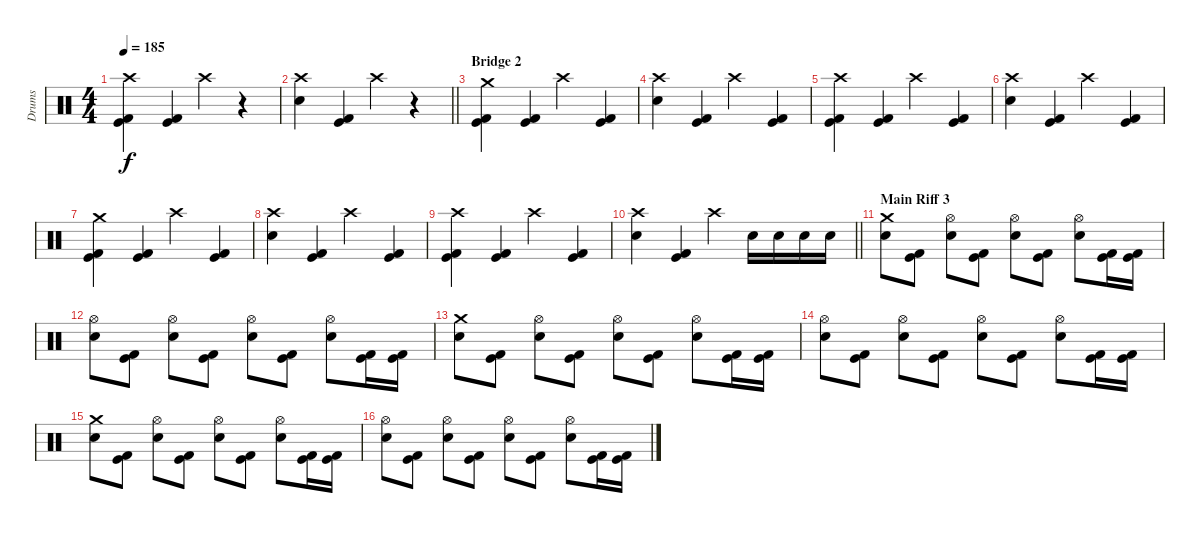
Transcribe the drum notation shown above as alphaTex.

\track ("Drums" "Drums") {instrument percussion}
\staff {score}
\articulation defaults
\ts (4 4)
\tempo 185
\clef neutral
\ks c
("Crash high (hit)" "Kick (hit) 2" "Kick (hit)").4{dy f} ("Kick (hit) 2" "Kick (hit)").4 "Crash high (hit)".4 r.4 |
\barLineRight lightlight
("Crash high (hit)" "Electric Snare (hit)").4 ("Kick (hit) 2" "Kick (hit)").4 "Crash high (hit)".4 r.4 |
\section ("" "Bridge 2")
("Crash medium (hit)" "Kick (hit) 2" "Kick (hit)").4 ("Kick (hit) 2" "Kick (hit)").4 "Crash high (hit)".4 ("Kick (hit) 2" "Kick (hit)").4 |
("Crash high (hit)" "Electric Snare (hit)").4 ("Kick (hit) 2" "Kick (hit)").4 "Crash high (hit)".4 ("Kick (hit) 2" "Kick (hit)").4 |
("Crash high (hit)" "Kick (hit) 2" "Kick (hit)").4 ("Kick (hit) 2" "Kick (hit)").4 "Crash high (hit)".4 ("Kick (hit) 2" "Kick (hit)").4 |
("Crash high (hit)" "Electric Snare (hit)").4 ("Kick (hit) 2" "Kick (hit)").4 "Crash high (hit)".4 ("Kick (hit) 2" "Kick (hit)").4 |
("Crash medium (hit)" "Kick (hit) 2" "Kick (hit)").4 ("Kick (hit) 2" "Kick (hit)").4 "Crash high (hit)".4 ("Kick (hit) 2" "Kick (hit)").4 |
("Crash high (hit)" "Electric Snare (hit)").4 ("Kick (hit) 2" "Kick (hit)").4 "Crash high (hit)".4 ("Kick (hit) 2" "Kick (hit)").4 |
("Crash high (hit)" "Kick (hit) 2" "Kick (hit)").4 ("Kick (hit) 2" "Kick (hit)").4 "Crash high (hit)".4 ("Kick (hit) 2" "Kick (hit)").4 |
\barLineRight lightlight
("Crash high (hit)" "Electric Snare (hit)").4 ("Kick (hit) 2" "Kick (hit)").4 "Crash high (hit)".4 "Electric Snare (hit)".16 "Electric Snare (hit)".16 "Electric Snare (hit)".16 "Electric Snare (hit)".16 |
\section ("" "Main Riff 3")
("Crash medium (hit)" "Electric Snare (hit)").8 ("Kick (hit) 2" "Kick (hit)").8 ("Hi-Hat (open)" "Electric Snare (hit)").8 ("Kick (hit) 2" "Kick (hit)").8 ("Hi-Hat (open)" "Electric Snare (hit)").8 ("Kick (hit) 2" "Kick (hit)").8 ("Hi-Hat (open)" "Electric Snare (hit)").8 ("Kick (hit) 2" "Kick (hit)").16 ("Kick (hit) 2" "Kick (hit)").16 |
("Hi-Hat (open)" "Electric Snare (hit)").8 ("Kick (hit) 2" "Kick (hit)").8 ("Hi-Hat (open)" "Electric Snare (hit)").8 ("Kick (hit) 2" "Kick (hit)").8 ("Hi-Hat (open)" "Electric Snare (hit)").8 ("Kick (hit) 2" "Kick (hit)").8 ("Hi-Hat (open)" "Electric Snare (hit)").8 ("Kick (hit) 2" "Kick (hit)").16 ("Kick (hit) 2" "Kick (hit)").16 |
("Crash medium (hit)" "Electric Snare (hit)").8 ("Kick (hit) 2" "Kick (hit)").8 ("Hi-Hat (open)" "Electric Snare (hit)").8 ("Kick (hit) 2" "Kick (hit)").8 ("Hi-Hat (open)" "Electric Snare (hit)").8 ("Kick (hit) 2" "Kick (hit)").8 ("Hi-Hat (open)" "Electric Snare (hit)").8 ("Kick (hit) 2" "Kick (hit)").16 ("Kick (hit) 2" "Kick (hit)").16 |
("Hi-Hat (open)" "Electric Snare (hit)").8 ("Kick (hit) 2" "Kick (hit)").8 ("Hi-Hat (open)" "Electric Snare (hit)").8 ("Kick (hit) 2" "Kick (hit)").8 ("Hi-Hat (open)" "Electric Snare (hit)").8 ("Kick (hit) 2" "Kick (hit)").8 ("Hi-Hat (open)" "Electric Snare (hit)").8 ("Kick (hit) 2" "Kick (hit)").16 ("Kick (hit) 2" "Kick (hit)").16 |
("Crash medium (hit)" "Electric Snare (hit)").8 ("Kick (hit) 2" "Kick (hit)").8 ("Hi-Hat (open)" "Electric Snare (hit)").8 ("Kick (hit) 2" "Kick (hit)").8 ("Hi-Hat (open)" "Electric Snare (hit)").8 ("Kick (hit) 2" "Kick (hit)").8 ("Hi-Hat (open)" "Electric Snare (hit)").8 ("Kick (hit) 2" "Kick (hit)").16 ("Kick (hit) 2" "Kick (hit)").16 |
("Hi-Hat (open)" "Electric Snare (hit)").8 ("Kick (hit) 2" "Kick (hit)").8 ("Hi-Hat (open)" "Electric Snare (hit)").8 ("Kick (hit) 2" "Kick (hit)").8 ("Hi-Hat (open)" "Electric Snare (hit)").8 ("Kick (hit) 2" "Kick (hit)").8 ("Hi-Hat (open)" "Electric Snare (hit)").8 ("Kick (hit) 2" "Kick (hit)").16 ("Kick (hit) 2" "Kick (hit)").16
